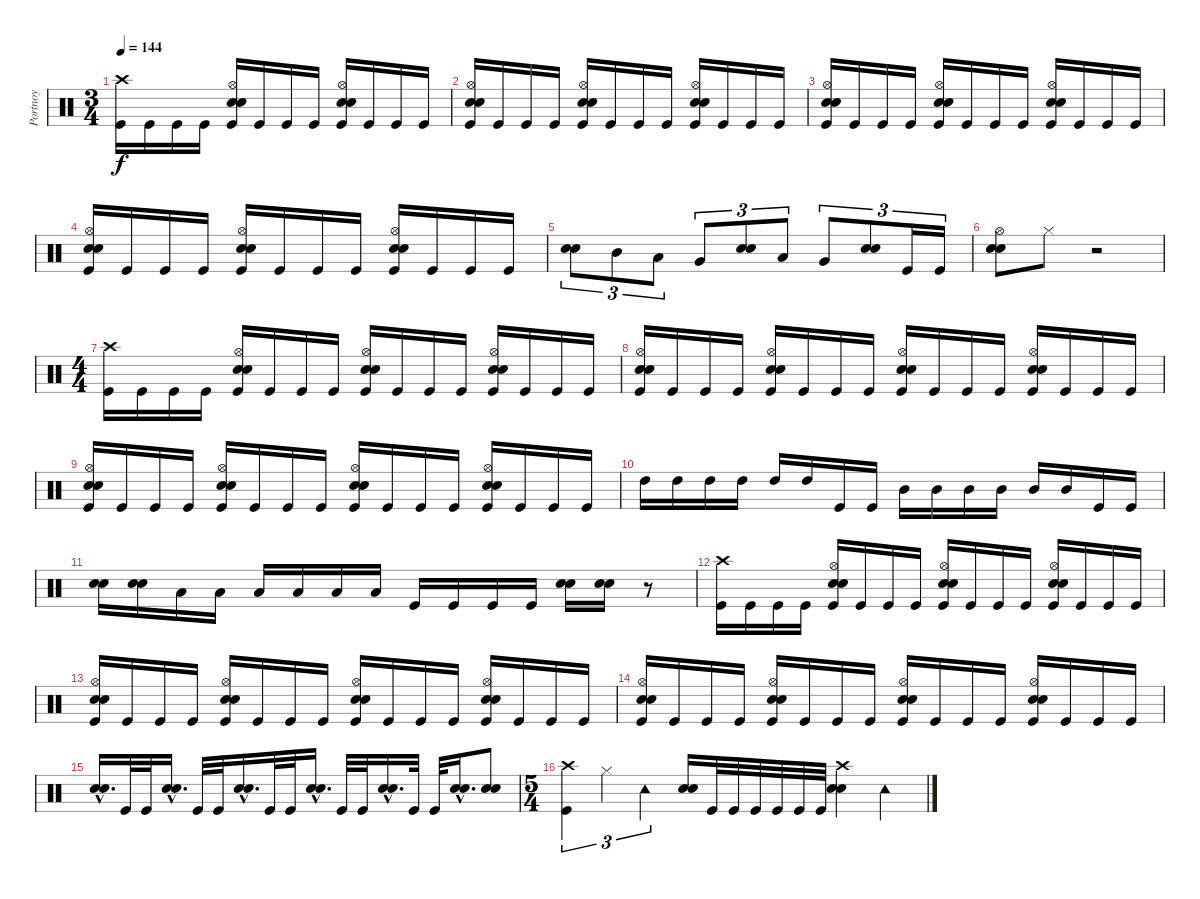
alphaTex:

\track ("Portnoy" "Portnoy") {instrument percussion}
\staff {score}
\articulation defaults
\ts (3 4)
\tempo 144
\clef neutral
\ks c
("Crash high (hit)" "Kick (hit)").16{dy f} "Kick (hit)".16 "Kick (hit)".16 "Kick (hit)".16 ("Hi-Hat (open)" "Snare (hit) 2" "Electric Snare (hit)" "Kick (hit)").16 "Kick (hit)".16 "Kick (hit)".16 "Kick (hit)".16 ("Hi-Hat (open)" "Snare (hit) 2" "Electric Snare (hit)" "Kick (hit)").16 "Kick (hit)".16 "Kick (hit)".16 "Kick (hit)".16 |
("Hi-Hat (open)" "Snare (hit) 2" "Electric Snare (hit)" "Kick (hit)").16 "Kick (hit)".16 "Kick (hit)".16 "Kick (hit)".16 ("Hi-Hat (open)" "Snare (hit) 2" "Electric Snare (hit)" "Kick (hit)").16 "Kick (hit)".16 "Kick (hit)".16 "Kick (hit)".16 ("Hi-Hat (open)" "Snare (hit) 2" "Electric Snare (hit)" "Kick (hit)").16 "Kick (hit)".16 "Kick (hit)".16 "Kick (hit)".16 |
("Hi-Hat (open)" "Snare (hit) 2" "Electric Snare (hit)" "Kick (hit)").16 "Kick (hit)".16 "Kick (hit)".16 "Kick (hit)".16 ("Hi-Hat (open)" "Snare (hit) 2" "Electric Snare (hit)" "Kick (hit)").16 "Kick (hit)".16 "Kick (hit)".16 "Kick (hit)".16 ("Hi-Hat (open)" "Snare (hit) 2" "Electric Snare (hit)" "Kick (hit)").16 "Kick (hit)".16 "Kick (hit)".16 "Kick (hit)".16 |
("Hi-Hat (open)" "Snare (hit) 2" "Electric Snare (hit)" "Kick (hit)").16 "Kick (hit)".16 "Kick (hit)".16 "Kick (hit)".16 ("Hi-Hat (open)" "Snare (hit) 2" "Electric Snare (hit)" "Kick (hit)").16 "Kick (hit)".16 "Kick (hit)".16 "Kick (hit)".16 ("Hi-Hat (open)" "Snare (hit) 2" "Electric Snare (hit)" "Kick (hit)").16 "Kick (hit)".16 "Kick (hit)".16 "Kick (hit)".16 |
("Snare (hit) 2" "Electric Snare (hit)").8{tu (3 2)} "Mid Tom (hit)".8{tu (3 2)} "Low Tom (hit)".8{tu (3 2)} "Very Low Tom (hit)".8{tu (3 2)} ("Snare (hit) 2" "Electric Snare (hit)").8{tu (3 2)} "Low Tom (hit)".8{tu (3 2)} "Very Low Tom (hit)".8{tu (3 2)} ("Snare (hit) 2" "Electric Snare (hit)").8{tu (3 2)} "Kick (hit)".16{tu (3 2)} "Kick (hit)".16{tu (3 2)} |
("Hi-Hat (open)" "Snare (hit) 2" "Electric Snare (hit)").8 "Hi-Hat (closed)".8 r.2 |
\ts (4 4)
("Crash high (hit)" "Kick (hit)").16 "Kick (hit)".16 "Kick (hit)".16 "Kick (hit)".16 ("Hi-Hat (open)" "Snare (hit) 2" "Electric Snare (hit)" "Kick (hit)").16 "Kick (hit)".16 "Kick (hit)".16 "Kick (hit)".16 ("Hi-Hat (open)" "Snare (hit) 2" "Electric Snare (hit)" "Kick (hit)").16 "Kick (hit)".16 "Kick (hit)".16 "Kick (hit)".16 ("Hi-Hat (open)" "Snare (hit) 2" "Electric Snare (hit)" "Kick (hit)").16 "Kick (hit)".16 "Kick (hit)".16 "Kick (hit)".16 |
("Hi-Hat (open)" "Snare (hit) 2" "Electric Snare (hit)" "Kick (hit)").16 "Kick (hit)".16 "Kick (hit)".16 "Kick (hit)".16 ("Hi-Hat (open)" "Snare (hit) 2" "Electric Snare (hit)" "Kick (hit)").16 "Kick (hit)".16 "Kick (hit)".16 "Kick (hit)".16 ("Hi-Hat (open)" "Snare (hit) 2" "Electric Snare (hit)" "Kick (hit)").16 "Kick (hit)".16 "Kick (hit)".16 "Kick (hit)".16 ("Hi-Hat (open)" "Snare (hit) 2" "Electric Snare (hit)" "Kick (hit)").16 "Kick (hit)".16 "Kick (hit)".16 "Kick (hit)".16 |
("Hi-Hat (open)" "Snare (hit) 2" "Electric Snare (hit)" "Kick (hit)").16 "Kick (hit)".16 "Kick (hit)".16 "Kick (hit)".16 ("Hi-Hat (open)" "Snare (hit) 2" "Electric Snare (hit)" "Kick (hit)").16 "Kick (hit)".16 "Kick (hit)".16 "Kick (hit)".16 ("Hi-Hat (open)" "Snare (hit) 2" "Electric Snare (hit)" "Kick (hit)").16 "Kick (hit)".16 "Kick (hit)".16 "Kick (hit)".16 ("Hi-Hat (open)" "Snare (hit) 2" "Electric Snare (hit)" "Kick (hit)").16 "Kick (hit)".16 "Kick (hit)".16 "Kick (hit)".16 |
"High Tom (hit)".16 "High Tom (hit)".16 "High Tom (hit)".16 "High Tom (hit)".16 "High Tom (hit)".16 "High Tom (hit)".16 "Kick (hit)".16 "Kick (hit)".16 "Mid Tom (hit)".16 "Mid Tom (hit)".16 "Mid Tom (hit)".16 "Mid Tom (hit)".16 "Mid Tom (hit)".16 "Mid Tom (hit)".16 "Kick (hit)".16 "Kick (hit)".16 |
("Snare (hit) 2" "Electric Snare (hit)").16 ("Snare (hit) 2" "Electric Snare (hit)").16 "Low Tom (hit)".16 "Low Tom (hit)".16 "Low Tom (hit)".16 "Low Tom (hit)".16 "Low Tom (hit)".16 "Low Tom (hit)".16 "Kick (hit)".16 "Kick (hit)".16 "Kick (hit)".16 "Kick (hit)".16 ("Snare (hit) 2" "Electric Snare (hit)").16 ("Snare (hit) 2" "Electric Snare (hit)").16 r.8 |
("Crash high (hit)" "Kick (hit)").16 "Kick (hit)".16 "Kick (hit)".16 "Kick (hit)".16 ("Hi-Hat (open)" "Snare (hit) 2" "Electric Snare (hit)" "Kick (hit)").16 "Kick (hit)".16 "Kick (hit)".16 "Kick (hit)".16 ("Hi-Hat (open)" "Snare (hit) 2" "Electric Snare (hit)" "Kick (hit)").16 "Kick (hit)".16 "Kick (hit)".16 "Kick (hit)".16 ("Hi-Hat (open)" "Snare (hit) 2" "Electric Snare (hit)" "Kick (hit)").16 "Kick (hit)".16 "Kick (hit)".16 "Kick (hit)".16 |
("Hi-Hat (open)" "Snare (hit) 2" "Electric Snare (hit)" "Kick (hit)").16 "Kick (hit)".16 "Kick (hit)".16 "Kick (hit)".16 ("Hi-Hat (open)" "Snare (hit) 2" "Electric Snare (hit)" "Kick (hit)").16 "Kick (hit)".16 "Kick (hit)".16 "Kick (hit)".16 ("Hi-Hat (open)" "Snare (hit) 2" "Electric Snare (hit)" "Kick (hit)").16 "Kick (hit)".16 "Kick (hit)".16 "Kick (hit)".16 ("Hi-Hat (open)" "Snare (hit) 2" "Electric Snare (hit)" "Kick (hit)").16 "Kick (hit)".16 "Kick (hit)".16 "Kick (hit)".16 |
("Hi-Hat (open)" "Snare (hit) 2" "Electric Snare (hit)" "Kick (hit)").16 "Kick (hit)".16 "Kick (hit)".16 "Kick (hit)".16 ("Hi-Hat (open)" "Snare (hit) 2" "Electric Snare (hit)" "Kick (hit)").16 "Kick (hit)".16 "Kick (hit)".16 "Kick (hit)".16 ("Hi-Hat (open)" "Snare (hit) 2" "Electric Snare (hit)" "Kick (hit)").16 "Kick (hit)".16 "Kick (hit)".16 "Kick (hit)".16 ("Hi-Hat (open)" "Snare (hit) 2" "Electric Snare (hit)" "Kick (hit)").16 "Kick (hit)".16 "Kick (hit)".16 "Kick (hit)".16 |
("Snare (hit) 2"{hac} "Electric Snare (hit)"{hac}).16{d} "Kick (hit)".32 "Kick (hit)".32 ("Snare (hit) 2"{hac} "Electric Snare (hit)"{hac}).16{d} "Kick (hit)".32 "Kick (hit)".32 ("Snare (hit) 2"{hac} "Electric Snare (hit)"{hac}).16{d} "Kick (hit)".32 "Kick (hit)".32 ("Snare (hit) 2"{hac} "Electric Snare (hit)"{hac}).16{d} "Kick (hit)".32 "Kick (hit)".32 ("Snare (hit) 2"{hac} "Electric Snare (hit)"{hac}).16{d} "Kick (hit)".32 "Kick (hit)".32 ("Snare (hit) 2"{hac} "Electric Snare (hit)"{hac}).16{d} ("Snare (hit) 2" "Electric Snare (hit)").8 |
\ts (5 4)
("Crash high (hit)" "Kick (hit)").4{tu (3 2)} "Hi-Hat (closed)".4{tu (3 2)} "Tambourine (hit)".4{tu (3 2)} ("Snare (hit) 2" "Electric Snare (hit)").16 "Kick (hit)".32 "Kick (hit)".32 "Kick (hit)".32 "Kick (hit)".32 "Kick (hit)".32 "Kick (hit)".32 ("Crash high (hit)" "Snare (hit) 2" "Electric Snare (hit)").4 "Tambourine (hit)".4
